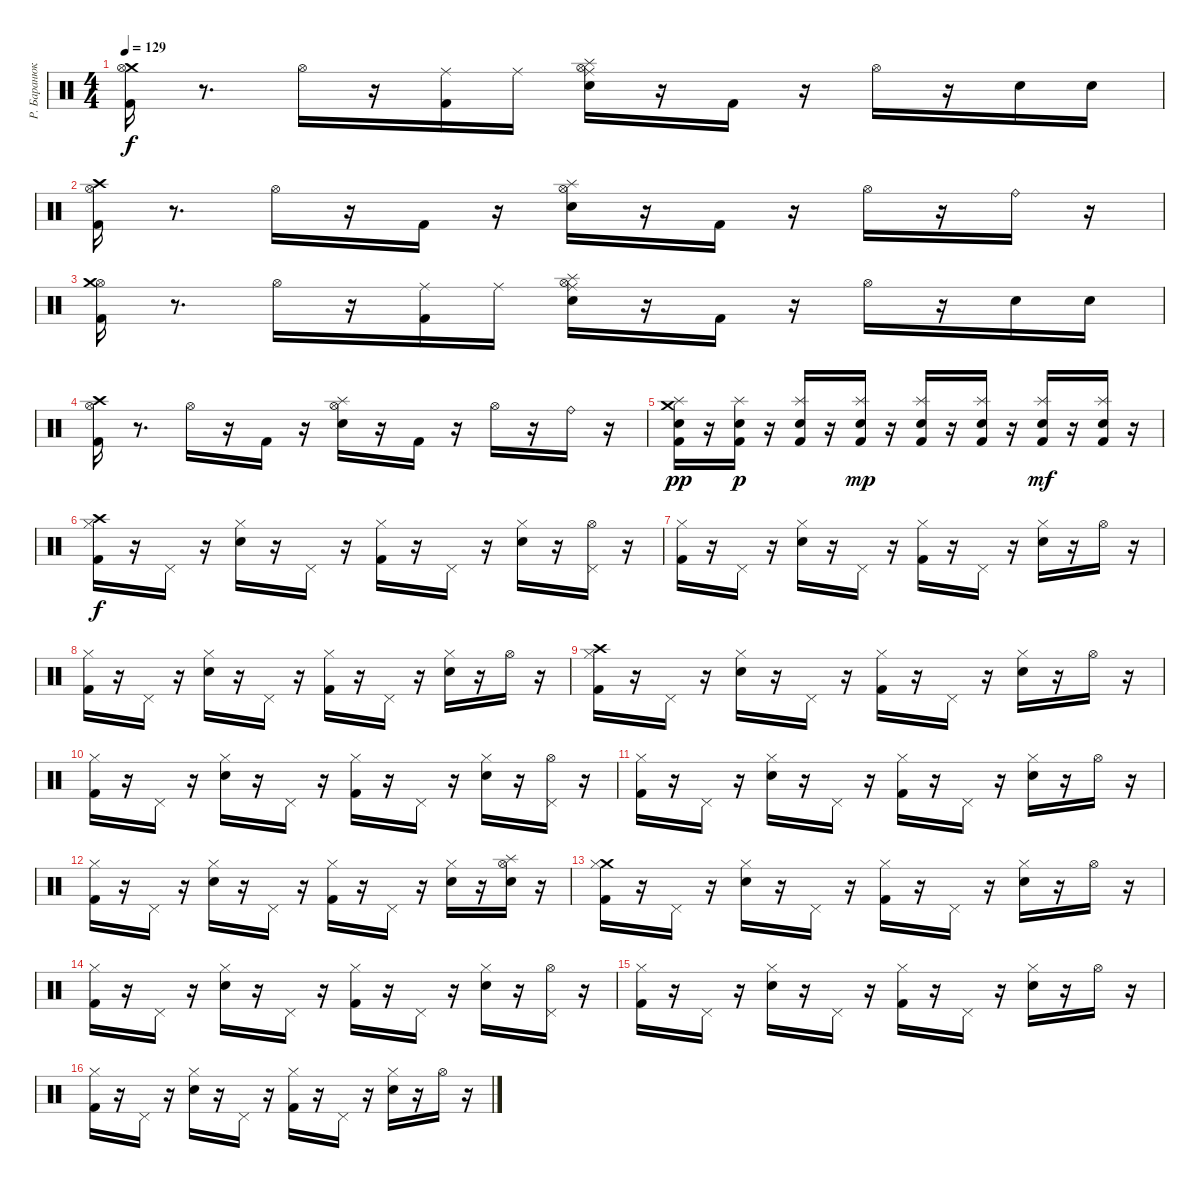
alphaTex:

\track ("Р. Баранюк" "Р. Баранюк") {instrument percussion}
\staff {score}
\articulation defaults
\ts (4 4)
\tempo 129
\clef neutral
\ks c
("Crash medium (hit)" "Hi-Hat (open)" "Kick (hit) 2").16{dy f} r.8{d} "Hi-Hat (open)".16 r.16 ("Ride (middle)" "Kick (hit) 2").16 "Ride (middle)".16 ("Ride (middle)" "Splash (hit)" "Electric Snare (hit)" "Hi-Hat (open)").16 r.16 "Kick (hit) 2".16 r.16 "Hi-Hat (open)".16 r.16 "Electric Snare (hit)".16 "Snare (hit) 2".16 |
("Kick (hit) 2" "Hi-Hat (open)" "Crash high (hit)").16 r.8{d} "Hi-Hat (open)".16 r.16 "Kick (hit) 2".16 r.16 ("Splash (hit)" "Hi-Hat (open)" "Electric Snare (hit)").16 r.16 "Kick (hit) 2".16 r.16 "Hi-Hat (open)".16 r.16 "Ride (bell)".16 r.16 |
("Kick (hit) 2" "Hi-Hat (open)" "Crash medium (hit)").16 r.8{d} "Hi-Hat (open)".16 r.16 ("Ride (middle)" "Kick (hit) 2").16 "Ride (middle)".16 ("Ride (middle)" "Splash (hit)" "Hi-Hat (open)" "Electric Snare (hit)").16 r.16 "Kick (hit) 2".16 r.16 "Hi-Hat (open)".16 r.16 "Electric Snare (hit)".16 "Snare (hit) 2".16 |
("Hi-Hat (open)" "Kick (hit) 2" "Crash high (hit)").16 r.8{d} "Hi-Hat (open)".16 r.16 "Kick (hit) 2".16 r.16 ("Hi-Hat (open)" "Electric Snare (hit)" "Splash (hit)").16 r.16 "Kick (hit) 2".16 r.16 "Hi-Hat (open)".16 r.16 "Ride (bell)".16 r.16 |
("Crash medium (hit)" "Splash (hit)" "Electric Snare (hit)" "Kick (hit) 2").16{dy pp} r.16 ("Splash (hit)" "Electric Snare (hit)" "Kick (hit) 2").16{dy p} r.16 ("Splash (hit)" "Electric Snare (hit)" "Kick (hit) 2").16 r.16 ("Splash (hit)" "Electric Snare (hit)" "Kick (hit) 2").16{dy mp} r.16 ("Splash (hit)" "Electric Snare (hit)" "Kick (hit) 2").16 r.16 ("Splash (hit)" "Electric Snare (hit)" "Kick (hit) 2").16 r.16 ("Splash (hit)" "Electric Snare (hit)" "Kick (hit) 2").16{dy mf} r.16 ("Splash (hit)" "Electric Snare (hit)" "Kick (hit) 2").16 r.16 |
("Crash high (hit)" "Hi-Hat (closed)" "Kick (hit) 2").16{dy f} r.16 "Pedal Hi-Hat (hit)".16 r.16 ("Hi-Hat (closed)" "Electric Snare (hit)").16 r.16 "Pedal Hi-Hat (hit)".16 r.16 ("Hi-Hat (closed)" "Kick (hit) 2").16 r.16 "Pedal Hi-Hat (hit)".16 r.16 ("Hi-Hat (closed)" "Electric Snare (hit)").16 r.16 ("Pedal Hi-Hat (hit)" "Hi-Hat (open)").16 r.16 |
("Hi-Hat (closed)" "Kick (hit) 2").16 r.16 "Pedal Hi-Hat (hit)".16 r.16 ("Hi-Hat (closed)" "Electric Snare (hit)").16 r.16 "Pedal Hi-Hat (hit)".16 r.16 ("Hi-Hat (closed)" "Kick (hit) 2").16 r.16 "Pedal Hi-Hat (hit)".16 r.16 ("Hi-Hat (closed)" "Electric Snare (hit)").16 r.16 "Hi-Hat (open)".16 r.16 |
("Hi-Hat (closed)" "Kick (hit) 2").16 r.16 "Pedal Hi-Hat (hit)".16 r.16 ("Hi-Hat (closed)" "Electric Snare (hit)").16 r.16 "Pedal Hi-Hat (hit)".16 r.16 ("Hi-Hat (closed)" "Kick (hit) 2").16 r.16 "Pedal Hi-Hat (hit)".16 r.16 ("Hi-Hat (closed)" "Electric Snare (hit)").16 r.16 "Hi-Hat (open)".16 r.16 |
("Crash high (hit)" "Hi-Hat (closed)" "Kick (hit) 2").16 r.16 "Pedal Hi-Hat (hit)".16 r.16 ("Hi-Hat (closed)" "Electric Snare (hit)").16 r.16 "Pedal Hi-Hat (hit)".16 r.16 ("Hi-Hat (closed)" "Kick (hit) 2").16 r.16 "Pedal Hi-Hat (hit)".16 r.16 ("Hi-Hat (closed)" "Electric Snare (hit)").16 r.16 "Hi-Hat (open)".16 r.16 |
("Hi-Hat (closed)" "Kick (hit) 2").16 r.16 "Pedal Hi-Hat (hit)".16 r.16 ("Hi-Hat (closed)" "Electric Snare (hit)").16 r.16 "Pedal Hi-Hat (hit)".16 r.16 ("Hi-Hat (closed)" "Kick (hit) 2").16 r.16 "Pedal Hi-Hat (hit)".16 r.16 ("Hi-Hat (closed)" "Electric Snare (hit)").16 r.16 ("Pedal Hi-Hat (hit)" "Hi-Hat (open)").16 r.16 |
("Hi-Hat (closed)" "Kick (hit) 2").16 r.16 "Pedal Hi-Hat (hit)".16 r.16 ("Hi-Hat (closed)" "Electric Snare (hit)").16 r.16 "Pedal Hi-Hat (hit)".16 r.16 ("Hi-Hat (closed)" "Kick (hit) 2").16 r.16 "Pedal Hi-Hat (hit)".16 r.16 ("Hi-Hat (closed)" "Electric Snare (hit)").16 r.16 "Hi-Hat (open)".16 r.16 |
("Hi-Hat (closed)" "Kick (hit) 2").16 r.16 "Pedal Hi-Hat (hit)".16 r.16 ("Hi-Hat (closed)" "Electric Snare (hit)").16 r.16 "Pedal Hi-Hat (hit)".16 r.16 ("Hi-Hat (closed)" "Kick (hit) 2").16 r.16 "Pedal Hi-Hat (hit)".16 r.16 ("Hi-Hat (closed)" "Electric Snare (hit)").16 r.16 ("Splash (hit)" "Electric Snare (hit)" "Hi-Hat (open)").16 r.16 |
("Crash medium (hit)" "Hi-Hat (closed)" "Kick (hit) 2").16 r.16 "Pedal Hi-Hat (hit)".16 r.16 ("Hi-Hat (closed)" "Electric Snare (hit)").16 r.16 "Pedal Hi-Hat (hit)".16 r.16 ("Hi-Hat (closed)" "Kick (hit) 2").16 r.16 "Pedal Hi-Hat (hit)".16 r.16 ("Hi-Hat (closed)" "Electric Snare (hit)").16 r.16 "Hi-Hat (open)".16 r.16 |
("Hi-Hat (closed)" "Kick (hit) 2").16 r.16 "Pedal Hi-Hat (hit)".16 r.16 ("Hi-Hat (closed)" "Electric Snare (hit)").16 r.16 "Pedal Hi-Hat (hit)".16 r.16 ("Hi-Hat (closed)" "Kick (hit) 2").16 r.16 "Pedal Hi-Hat (hit)".16 r.16 ("Hi-Hat (closed)" "Electric Snare (hit)").16 r.16 ("Pedal Hi-Hat (hit)" "Hi-Hat (open)").16 r.16 |
("Hi-Hat (closed)" "Kick (hit) 2").16 r.16 "Pedal Hi-Hat (hit)".16 r.16 ("Hi-Hat (closed)" "Electric Snare (hit)").16 r.16 "Pedal Hi-Hat (hit)".16 r.16 ("Hi-Hat (closed)" "Kick (hit) 2").16 r.16 "Pedal Hi-Hat (hit)".16 r.16 ("Hi-Hat (closed)" "Electric Snare (hit)").16 r.16 "Hi-Hat (open)".16 r.16 |
("Hi-Hat (closed)" "Kick (hit) 2").16 r.16 "Pedal Hi-Hat (hit)".16 r.16 ("Hi-Hat (closed)" "Electric Snare (hit)").16 r.16 "Pedal Hi-Hat (hit)".16 r.16 ("Hi-Hat (closed)" "Kick (hit) 2").16 r.16 "Pedal Hi-Hat (hit)".16 r.16 ("Hi-Hat (closed)" "Electric Snare (hit)").16 r.16 "Hi-Hat (open)".16 r.16
